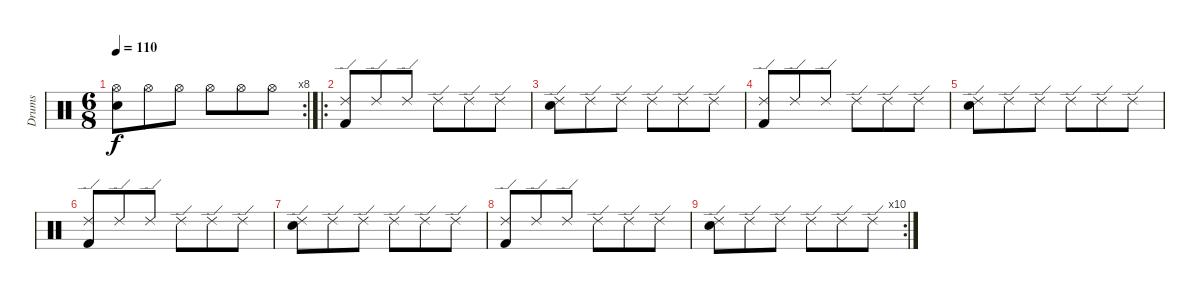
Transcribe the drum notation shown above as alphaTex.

\track ("Drums" "Drums") {instrument percussion}
\staff {score}
\articulation defaults
\rc 8
\ts (6 8)
\tempo 110
\clef neutral
\ks c
("Hi-Hat (open)" "Electric Snare (hit)").8{dy f} "Hi-Hat (open)".8 "Hi-Hat (open)".8 "Hi-Hat (open)".8 "Hi-Hat (open)".8 "Hi-Hat (open)".8 |
\ro
("Ride (edge) 2" "Kick (hit) 2").8 "Ride (edge) 2".8 "Ride (edge) 2".8 "Ride (edge) 2".8 "Ride (edge) 2".8 "Ride (edge) 2".8 |
("Ride (edge) 2" "Electric Snare (hit)").8 "Ride (edge) 2".8 "Ride (edge) 2".8 "Ride (edge) 2".8 "Ride (edge) 2".8 "Ride (edge) 2".8 |
("Ride (edge) 2" "Kick (hit) 2").8 "Ride (edge) 2".8 "Ride (edge) 2".8 "Ride (edge) 2".8 "Ride (edge) 2".8 "Ride (edge) 2".8 |
("Ride (edge) 2" "Electric Snare (hit)").8 "Ride (edge) 2".8 "Ride (edge) 2".8 "Ride (edge) 2".8 "Ride (edge) 2".8 "Ride (edge) 2".8 |
("Ride (edge) 2" "Kick (hit) 2").8 "Ride (edge) 2".8 "Ride (edge) 2".8 "Ride (edge) 2".8 "Ride (edge) 2".8 "Ride (edge) 2".8 |
("Ride (edge) 2" "Electric Snare (hit)").8 "Ride (edge) 2".8 "Ride (edge) 2".8 "Ride (edge) 2".8 "Ride (edge) 2".8 "Ride (edge) 2".8 |
("Ride (edge) 2" "Kick (hit) 2").8 "Ride (edge) 2".8 "Ride (edge) 2".8 "Ride (edge) 2".8 "Ride (edge) 2".8 "Ride (edge) 2".8 |
\rc 10
("Ride (edge) 2" "Electric Snare (hit)").8 "Ride (edge) 2".8 "Ride (edge) 2".8 "Ride (edge) 2".8 "Ride (edge) 2".8 "Ride (edge) 2".8
